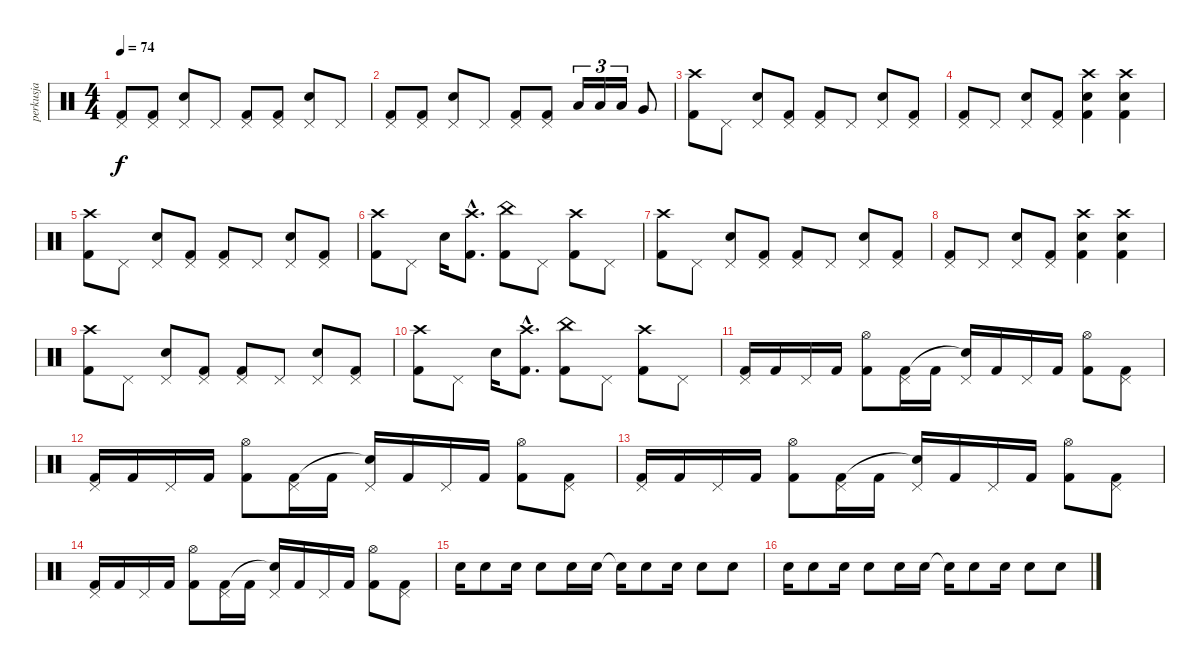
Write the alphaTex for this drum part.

\track ("perkusja" "perkusja") {instrument percussion}
\staff {score}
\articulation defaults
\ts (4 4)
\tempo 74
\clef neutral
\ks c
("Pedal Hi-Hat (hit)" "Kick (hit) 2").8{dy f} ("Pedal Hi-Hat (hit)" "Kick (hit) 2").8 ("Pedal Hi-Hat (hit)" "Electric Snare (hit)").8 "Pedal Hi-Hat (hit)".8 ("Pedal Hi-Hat (hit)" "Kick (hit) 2").8 ("Pedal Hi-Hat (hit)" "Kick (hit) 2").8 ("Pedal Hi-Hat (hit)" "Electric Snare (hit)").8 "Pedal Hi-Hat (hit)".8 |
("Pedal Hi-Hat (hit)" "Kick (hit) 2").8 ("Pedal Hi-Hat (hit)" "Kick (hit) 2").8 ("Pedal Hi-Hat (hit)" "Electric Snare (hit)").8 "Pedal Hi-Hat (hit)".8 ("Pedal Hi-Hat (hit)" "Kick (hit) 2").8 ("Pedal Hi-Hat (hit)" "Kick (hit) 2").8 "Low Tom (hit)".16{tu (3 2)} "Low Tom (hit)".16{tu (3 2)} "Low Tom (hit)".16{tu (3 2)} "Very Low Tom (hit)".8 |
("Crash high (hit)" "Kick (hit) 2").8 "Pedal Hi-Hat (hit)".8 ("Pedal Hi-Hat (hit)" "Electric Snare (hit)").8 ("Pedal Hi-Hat (hit)" "Kick (hit) 2").8 ("Pedal Hi-Hat (hit)" "Kick (hit) 2").8 "Pedal Hi-Hat (hit)".8 ("Pedal Hi-Hat (hit)" "Electric Snare (hit)").8 ("Pedal Hi-Hat (hit)" "Kick (hit) 2").8 |
("Pedal Hi-Hat (hit)" "Kick (hit) 2").8 "Pedal Hi-Hat (hit)".8 ("Pedal Hi-Hat (hit)" "Electric Snare (hit)").8 ("Pedal Hi-Hat (hit)" "Kick (hit) 2").8 ("Crash high (hit)" "Kick (hit) 2" "Electric Snare (hit)").4 ("Crash high (hit)" "Electric Snare (hit)" "Kick (hit) 2").4 |
("Crash high (hit)" "Kick (hit) 2").8 "Pedal Hi-Hat (hit)".8 ("Pedal Hi-Hat (hit)" "Electric Snare (hit)").8 ("Pedal Hi-Hat (hit)" "Kick (hit) 2").8 ("Pedal Hi-Hat (hit)" "Kick (hit) 2").8 "Pedal Hi-Hat (hit)".8 ("Pedal Hi-Hat (hit)" "Electric Snare (hit)").8 ("Pedal Hi-Hat (hit)" "Kick (hit) 2").8 |
("Crash high (hit)" "Kick (hit) 2").8 "Pedal Hi-Hat (hit)".8 "Electric Snare (hit)".16 ("Kick (hit) 2"{hac} "Crash high (hit)"{hac}).8{d} ("China (hit)" "Kick (hit) 2").8 "Pedal Hi-Hat (hit)".8 ("Crash high (hit)" "Kick (hit) 2").8 "Pedal Hi-Hat (hit)".8 |
("Crash high (hit)" "Kick (hit) 2").8 "Pedal Hi-Hat (hit)".8 ("Pedal Hi-Hat (hit)" "Electric Snare (hit)").8 ("Pedal Hi-Hat (hit)" "Kick (hit) 2").8 ("Pedal Hi-Hat (hit)" "Kick (hit) 2").8 "Pedal Hi-Hat (hit)".8 ("Pedal Hi-Hat (hit)" "Electric Snare (hit)").8 ("Pedal Hi-Hat (hit)" "Kick (hit) 2").8 |
("Pedal Hi-Hat (hit)" "Kick (hit) 2").8 "Pedal Hi-Hat (hit)".8 ("Pedal Hi-Hat (hit)" "Electric Snare (hit)").8 ("Pedal Hi-Hat (hit)" "Kick (hit) 2").8 ("Crash high (hit)" "Kick (hit) 2" "Electric Snare (hit)").4 ("Crash high (hit)" "Electric Snare (hit)" "Kick (hit) 2").4 |
("Crash high (hit)" "Kick (hit) 2").8 "Pedal Hi-Hat (hit)".8 ("Pedal Hi-Hat (hit)" "Electric Snare (hit)").8 ("Pedal Hi-Hat (hit)" "Kick (hit) 2").8 ("Pedal Hi-Hat (hit)" "Kick (hit) 2").8 "Pedal Hi-Hat (hit)".8 ("Pedal Hi-Hat (hit)" "Electric Snare (hit)").8 ("Pedal Hi-Hat (hit)" "Kick (hit) 2").8 |
("Crash high (hit)" "Kick (hit) 2").8 "Pedal Hi-Hat (hit)".8 "Electric Snare (hit)".16 ("Kick (hit) 2"{hac} "Crash high (hit)"{hac}).8{d} ("China (hit)" "Kick (hit) 2").8 "Pedal Hi-Hat (hit)".8 ("Crash high (hit)" "Kick (hit) 2").8 "Pedal Hi-Hat (hit)".8 |
("Pedal Hi-Hat (hit)" "Kick (hit) 2").16 "Kick (hit) 2".16 "Pedal Hi-Hat (hit)".16 "Kick (hit) 2".16 ("Hi-Hat (open)" "Kick (hit) 2").8 ("Pedal Hi-Hat (hit)" "Kick (hit) 2").16 "Kick (hit) 2".16 ("Pedal Hi-Hat (hit)" "Snare (hit)"{t}).16 "Kick (hit) 2".16 "Pedal Hi-Hat (hit)".16 "Kick (hit) 2".16 ("Hi-Hat (open)" "Kick (hit) 2").8 ("Pedal Hi-Hat (hit)" "Kick (hit) 2").8 |
("Pedal Hi-Hat (hit)" "Kick (hit) 2").16 "Kick (hit) 2".16 "Pedal Hi-Hat (hit)".16 "Kick (hit) 2".16 ("Hi-Hat (open)" "Kick (hit) 2").8 ("Pedal Hi-Hat (hit)" "Kick (hit) 2").16 "Kick (hit) 2".16 ("Pedal Hi-Hat (hit)" "Snare (hit)"{t}).16 "Kick (hit) 2".16 "Pedal Hi-Hat (hit)".16 "Kick (hit) 2".16 ("Hi-Hat (open)" "Kick (hit) 2").8 ("Pedal Hi-Hat (hit)" "Kick (hit) 2").8 |
("Pedal Hi-Hat (hit)" "Kick (hit) 2").16 "Kick (hit) 2".16 "Pedal Hi-Hat (hit)".16 "Kick (hit) 2".16 ("Hi-Hat (open)" "Kick (hit) 2").8 ("Pedal Hi-Hat (hit)" "Kick (hit) 2").16 "Kick (hit) 2".16 ("Pedal Hi-Hat (hit)" "Snare (hit)"{t}).16 "Kick (hit) 2".16 "Pedal Hi-Hat (hit)".16 "Kick (hit) 2".16 ("Hi-Hat (open)" "Kick (hit) 2").8 ("Pedal Hi-Hat (hit)" "Kick (hit) 2").8 |
("Pedal Hi-Hat (hit)" "Kick (hit) 2").16 "Kick (hit) 2".16 "Pedal Hi-Hat (hit)".16 "Kick (hit) 2".16 ("Hi-Hat (open)" "Kick (hit) 2").8 ("Pedal Hi-Hat (hit)" "Kick (hit) 2").16 "Kick (hit) 2".16 ("Pedal Hi-Hat (hit)" "Snare (hit)"{t}).16 "Kick (hit) 2".16 "Pedal Hi-Hat (hit)".16 "Kick (hit) 2".16 ("Hi-Hat (open)" "Kick (hit) 2").8 ("Pedal Hi-Hat (hit)" "Kick (hit) 2").8 |
"Electric Snare (hit)".16 "Electric Snare (hit)".8 "Electric Snare (hit)".16 "Electric Snare (hit)".8 "Electric Snare (hit)".16 "Electric Snare (hit)".16 "Snare (hit)"{t}.16 "Electric Snare (hit)".8 "Electric Snare (hit)".16 "Electric Snare (hit)".8 "Electric Snare (hit)".8 |
"Electric Snare (hit)".16 "Electric Snare (hit)".8 "Electric Snare (hit)".16 "Electric Snare (hit)".8 "Electric Snare (hit)".16 "Electric Snare (hit)".16 "Snare (hit)"{t}.16 "Electric Snare (hit)".8 "Electric Snare (hit)".16 "Electric Snare (hit)".8 "Electric Snare (hit)".8
